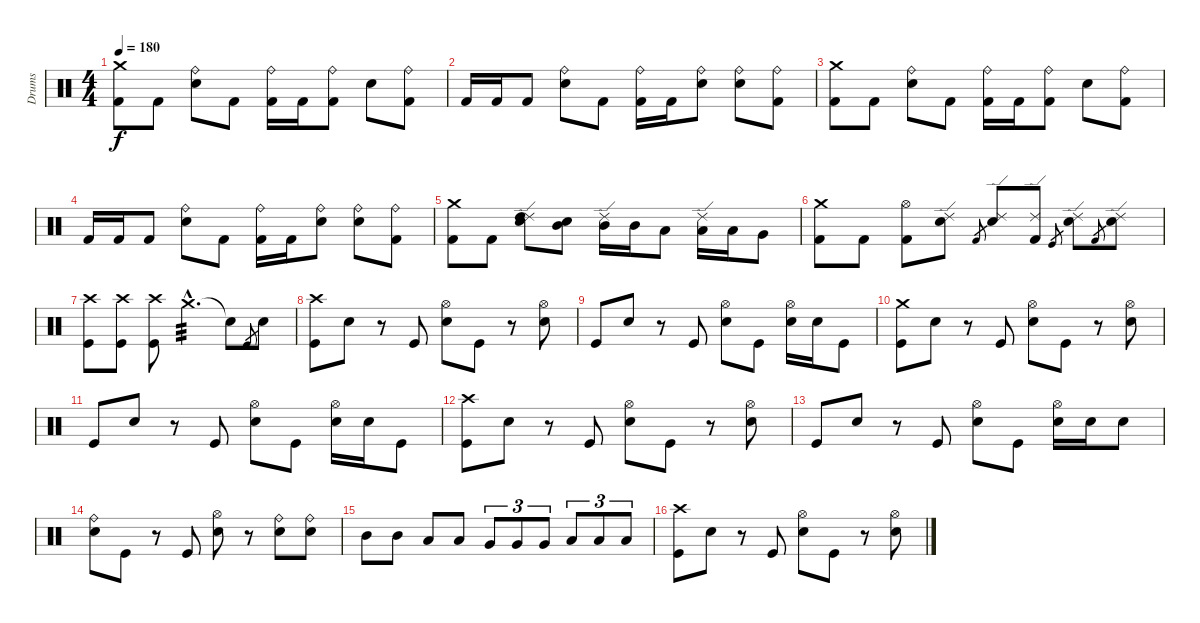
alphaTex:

\track ("Drums" "Drums") {instrument percussion}
\staff {score}
\articulation defaults
\ts (4 4)
\tempo 180
\clef neutral
\ks c
("Crash medium (hit)" "Kick (hit) 2").8{dy f} "Kick (hit) 2".8 ("Ride (bell)" "Electric Snare (hit)").8 "Kick (hit) 2".8 ("Ride (bell)" "Kick (hit) 2").16 "Kick (hit) 2".16 ("Ride (bell)" "Kick (hit) 2").8 "Electric Snare (hit)".8 ("Ride (bell)" "Kick (hit) 2").8 |
"Kick (hit) 2".16 "Kick (hit) 2".16 "Kick (hit) 2".8 ("Ride (bell)" "Electric Snare (hit)").8 "Kick (hit) 2".8 ("Ride (bell)" "Kick (hit) 2").16 "Kick (hit) 2".16 ("Ride (bell)" "Electric Snare (hit)").8 ("Ride (bell)" "Snare (hit) 2").8 ("Ride (bell)" "Kick (hit) 2").8 |
("Crash medium (hit)" "Kick (hit) 2").8 "Kick (hit) 2".8 ("Ride (bell)" "Electric Snare (hit)").8 "Kick (hit) 2".8 ("Ride (bell)" "Kick (hit) 2").16 "Kick (hit) 2".16 ("Ride (bell)" "Kick (hit) 2").8 "Electric Snare (hit)".8 ("Ride (bell)" "Kick (hit) 2").8 |
"Kick (hit) 2".16 "Kick (hit) 2".16 "Kick (hit) 2".8 ("Ride (bell)" "Electric Snare (hit)").8 "Kick (hit) 2".8 ("Ride (bell)" "Kick (hit) 2").16 "Kick (hit) 2".16 ("Ride (bell)" "Electric Snare (hit)").8 ("Ride (bell)" "Snare (hit) 2").8 ("Ride (bell)" "Kick (hit) 2").8 |
("Crash medium (hit)" "Kick (hit) 2").8 "Kick (hit) 2".8 ("Ride (edge) 2" "High Tom (hit)" "Electric Snare (hit)").8 ("Mid Tom (hit)" "Electric Snare (hit)").8 ("Ride (edge) 2" "Mid Tom (hit)").16 "Mid Tom (hit)".16 "Low Tom (hit)".8 ("Ride (edge) 2" "Low Tom (hit)").16 "Low Tom (hit)".16 "Very Low Tom (hit)".8 |
("Kick (hit) 2" "Crash medium (hit)").8 "Kick (hit) 2".8 ("Kick (hit) 2" "Hi-Hat (open)").8 ("Ride (edge) 2" "Electric Snare (hit)").8 "Kick (hit) 2".8{gr} ("Ride (edge) 2" "Electric Snare (hit)").8 ("Ride (edge) 2" "Kick (hit) 2").8 "Kick (hit)".8{gr} ("Ride (edge) 2" "Snare (hit) 2").8 "Kick (hit) 2".8{gr} ("Ride (edge) 2" "Electric Snare (hit)").8 |
("Crash high (hit)" "Kick (hit)").8 ("Crash high (hit)" "Kick (hit)").8 ("Crash high (hit)" "Kick (hit)").8 "Crash medium (hit)"{hac}.4{d tp 3} "Snare (hit)"{t}.8 "Kick (hit)".8{gr} "Electric Snare (hit)".8 |
("Crash high (hit)" "Kick (hit)").8 "Electric Snare (hit)".8 r.8 "Kick (hit)".8 ("Hi-Hat (open)" "Electric Snare (hit)").8 "Kick (hit)".8 r.8 ("Hi-Hat (open)" "Electric Snare (hit)").8 |
"Kick (hit)".8 "Electric Snare (hit)".8 r.8 "Kick (hit)".8 ("Hi-Hat (open)" "Electric Snare (hit)").8 "Kick (hit)".8 ("Hi-Hat (open)" "Electric Snare (hit)").16 "Electric Snare (hit)".16 "Kick (hit)".8 |
("Crash medium (hit)" "Kick (hit)").8 "Electric Snare (hit)".8 r.8 "Kick (hit)".8 ("Hi-Hat (open)" "Electric Snare (hit)").8 "Kick (hit)".8 r.8 ("Hi-Hat (open)" "Electric Snare (hit)").8 |
"Kick (hit)".8 "Electric Snare (hit)".8 r.8 "Kick (hit)".8 ("Hi-Hat (open)" "Electric Snare (hit)").8 "Kick (hit)".8 ("Hi-Hat (open)" "Electric Snare (hit)").16 "Electric Snare (hit)".16 "Kick (hit)".8 |
("Crash high (hit)" "Kick (hit)").8 "Electric Snare (hit)".8 r.8 "Kick (hit)".8 ("Hi-Hat (open)" "Electric Snare (hit)").8 "Kick (hit)".8 r.8 ("Hi-Hat (open)" "Electric Snare (hit)").8 |
"Kick (hit)".8 "Electric Snare (hit)".8 r.8 "Kick (hit)".8 ("Hi-Hat (open)" "Electric Snare (hit)").8 "Kick (hit)".8 ("Hi-Hat (open)" "Electric Snare (hit)").16 "Electric Snare (hit)".16 "Electric Snare (hit)".8 |
("Ride (bell)" "Snare (hit) 2").8 "Kick (hit)".8 r.8 "Kick (hit)".8 ("Hi-Hat (open)" "Electric Snare (hit)").8 r.8 ("Ride (bell)" "Snare (hit) 2").8 ("Ride (bell)" "Snare (hit) 2").8 |
"Mid Tom (hit)".8 "Mid Tom (hit)".8 "Low Tom (hit)".8 "Low Tom (hit)".8 "Very Low Tom (hit)".8{tu (3 2)} "Very Low Tom (hit)".8{tu (3 2)} "Very Low Tom (hit)".8{tu (3 2)} "Low Floor Tom (hit)".8{tu (3 2)} "Low Floor Tom (hit)".8{tu (3 2)} "Low Floor Tom (hit)".8{tu (3 2)} |
("Crash high (hit)" "Kick (hit)").8 "Electric Snare (hit)".8 r.8 "Kick (hit)".8 ("Hi-Hat (open)" "Electric Snare (hit)").8 "Kick (hit)".8 r.8 ("Hi-Hat (open)" "Electric Snare (hit)").8
